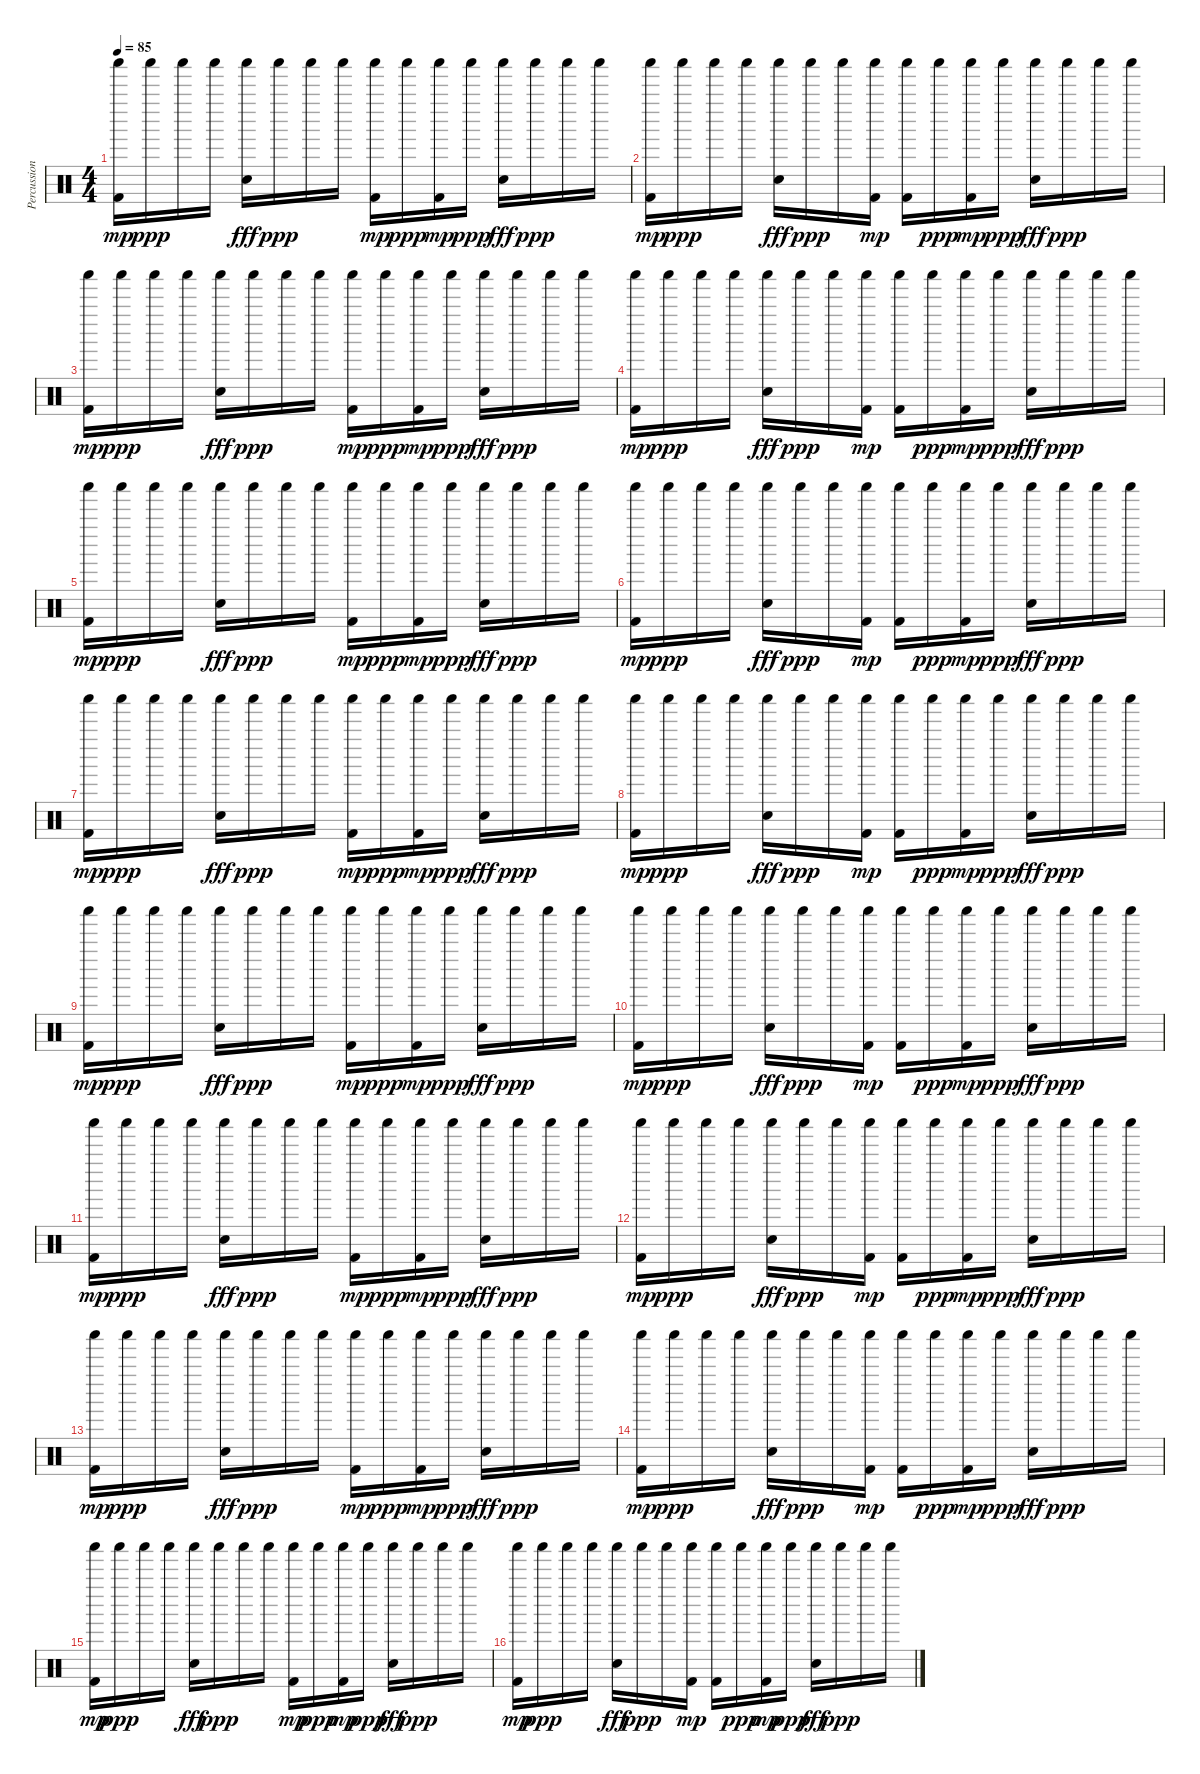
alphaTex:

\track ("Percussion" "Percussion") {instrument percussion}
\staff {score}
\articulation defaults
\ts (4 4)
\tempo 85
\clef neutral
\ks c
("Shaker (hit)" "Kick (hit) 2").16{dy mp volume 12} "Shaker (hit)".16{dy ppp} "Shaker (hit)".16 "Shaker (hit)".16 ("Shaker (hit)" "Electric Snare (hit)").16{dy fff} "Shaker (hit)".16{dy ppp} "Shaker (hit)".16 "Shaker (hit)".16 ("Shaker (hit)" "Kick (hit) 2").16{dy mp} "Shaker (hit)".16{dy ppp} ("Shaker (hit)" "Kick (hit) 2").16{dy mp} "Shaker (hit)".16{dy ppp} ("Shaker (hit)" "Electric Snare (hit)").16{dy fff} "Shaker (hit)".16{dy ppp} "Shaker (hit)".16 "Shaker (hit)".16 |
("Shaker (hit)" "Kick (hit) 2").16{dy mp} "Shaker (hit)".16{dy ppp} "Shaker (hit)".16 "Shaker (hit)".16 ("Shaker (hit)" "Electric Snare (hit)").16{dy fff} "Shaker (hit)".16{dy ppp} "Shaker (hit)".16 ("Shaker (hit)" "Kick (hit) 2").16{dy mp} ("Shaker (hit)" "Kick (hit) 2").16 "Shaker (hit)".16{dy ppp} ("Shaker (hit)" "Kick (hit) 2").16{dy mp} "Shaker (hit)".16{dy ppp} ("Shaker (hit)" "Electric Snare (hit)").16{dy fff} "Shaker (hit)".16{dy ppp} "Shaker (hit)".16 "Shaker (hit)".16 |
("Shaker (hit)" "Kick (hit) 2").16{dy mp} "Shaker (hit)".16{dy ppp} "Shaker (hit)".16 "Shaker (hit)".16 ("Shaker (hit)" "Electric Snare (hit)").16{dy fff} "Shaker (hit)".16{dy ppp} "Shaker (hit)".16 "Shaker (hit)".16 ("Shaker (hit)" "Kick (hit) 2").16{dy mp} "Shaker (hit)".16{dy ppp} ("Shaker (hit)" "Kick (hit) 2").16{dy mp} "Shaker (hit)".16{dy ppp} ("Shaker (hit)" "Electric Snare (hit)").16{dy fff} "Shaker (hit)".16{dy ppp} "Shaker (hit)".16 "Shaker (hit)".16 |
("Shaker (hit)" "Kick (hit) 2").16{dy mp} "Shaker (hit)".16{dy ppp} "Shaker (hit)".16 "Shaker (hit)".16 ("Shaker (hit)" "Electric Snare (hit)").16{dy fff} "Shaker (hit)".16{dy ppp} "Shaker (hit)".16 ("Shaker (hit)" "Kick (hit) 2").16{dy mp} ("Shaker (hit)" "Kick (hit) 2").16 "Shaker (hit)".16{dy ppp} ("Shaker (hit)" "Kick (hit) 2").16{dy mp} "Shaker (hit)".16{dy ppp} ("Shaker (hit)" "Electric Snare (hit)").16{dy fff} "Shaker (hit)".16{dy ppp} "Shaker (hit)".16 "Shaker (hit)".16 |
("Shaker (hit)" "Kick (hit) 2").16{dy mp} "Shaker (hit)".16{dy ppp} "Shaker (hit)".16 "Shaker (hit)".16 ("Shaker (hit)" "Electric Snare (hit)").16{dy fff} "Shaker (hit)".16{dy ppp} "Shaker (hit)".16 "Shaker (hit)".16 ("Shaker (hit)" "Kick (hit) 2").16{dy mp} "Shaker (hit)".16{dy ppp} ("Shaker (hit)" "Kick (hit) 2").16{dy mp} "Shaker (hit)".16{dy ppp} ("Shaker (hit)" "Electric Snare (hit)").16{dy fff} "Shaker (hit)".16{dy ppp} "Shaker (hit)".16 "Shaker (hit)".16 |
("Shaker (hit)" "Kick (hit) 2").16{dy mp} "Shaker (hit)".16{dy ppp} "Shaker (hit)".16 "Shaker (hit)".16 ("Shaker (hit)" "Electric Snare (hit)").16{dy fff} "Shaker (hit)".16{dy ppp} "Shaker (hit)".16 ("Shaker (hit)" "Kick (hit) 2").16{dy mp} ("Shaker (hit)" "Kick (hit) 2").16 "Shaker (hit)".16{dy ppp} ("Shaker (hit)" "Kick (hit) 2").16{dy mp} "Shaker (hit)".16{dy ppp} ("Shaker (hit)" "Electric Snare (hit)").16{dy fff} "Shaker (hit)".16{dy ppp} "Shaker (hit)".16 "Shaker (hit)".16 |
("Shaker (hit)" "Kick (hit) 2").16{dy mp} "Shaker (hit)".16{dy ppp} "Shaker (hit)".16 "Shaker (hit)".16 ("Shaker (hit)" "Electric Snare (hit)").16{dy fff} "Shaker (hit)".16{dy ppp} "Shaker (hit)".16 "Shaker (hit)".16 ("Shaker (hit)" "Kick (hit) 2").16{dy mp} "Shaker (hit)".16{dy ppp} ("Shaker (hit)" "Kick (hit) 2").16{dy mp} "Shaker (hit)".16{dy ppp} ("Shaker (hit)" "Electric Snare (hit)").16{dy fff} "Shaker (hit)".16{dy ppp} "Shaker (hit)".16 "Shaker (hit)".16 |
("Shaker (hit)" "Kick (hit) 2").16{dy mp} "Shaker (hit)".16{dy ppp} "Shaker (hit)".16 "Shaker (hit)".16 ("Shaker (hit)" "Electric Snare (hit)").16{dy fff} "Shaker (hit)".16{dy ppp} "Shaker (hit)".16 ("Shaker (hit)" "Kick (hit) 2").16{dy mp} ("Shaker (hit)" "Kick (hit) 2").16 "Shaker (hit)".16{dy ppp} ("Shaker (hit)" "Kick (hit) 2").16{dy mp} "Shaker (hit)".16{dy ppp} ("Shaker (hit)" "Electric Snare (hit)").16{dy fff} "Shaker (hit)".16{dy ppp} "Shaker (hit)".16 "Shaker (hit)".16 |
("Shaker (hit)" "Kick (hit) 2").16{dy mp} "Shaker (hit)".16{dy ppp} "Shaker (hit)".16 "Shaker (hit)".16 ("Shaker (hit)" "Electric Snare (hit)").16{dy fff} "Shaker (hit)".16{dy ppp} "Shaker (hit)".16 "Shaker (hit)".16 ("Shaker (hit)" "Kick (hit) 2").16{dy mp} "Shaker (hit)".16{dy ppp} ("Shaker (hit)" "Kick (hit) 2").16{dy mp} "Shaker (hit)".16{dy ppp} ("Shaker (hit)" "Electric Snare (hit)").16{dy fff} "Shaker (hit)".16{dy ppp} "Shaker (hit)".16 "Shaker (hit)".16 |
("Shaker (hit)" "Kick (hit) 2").16{dy mp} "Shaker (hit)".16{dy ppp} "Shaker (hit)".16 "Shaker (hit)".16 ("Shaker (hit)" "Electric Snare (hit)").16{dy fff} "Shaker (hit)".16{dy ppp} "Shaker (hit)".16 ("Shaker (hit)" "Kick (hit) 2").16{dy mp} ("Shaker (hit)" "Kick (hit) 2").16 "Shaker (hit)".16{dy ppp} ("Shaker (hit)" "Kick (hit) 2").16{dy mp} "Shaker (hit)".16{dy ppp} ("Shaker (hit)" "Electric Snare (hit)").16{dy fff} "Shaker (hit)".16{dy ppp} "Shaker (hit)".16 "Shaker (hit)".16 |
("Shaker (hit)" "Kick (hit) 2").16{dy mp} "Shaker (hit)".16{dy ppp} "Shaker (hit)".16 "Shaker (hit)".16 ("Shaker (hit)" "Electric Snare (hit)").16{dy fff} "Shaker (hit)".16{dy ppp} "Shaker (hit)".16 "Shaker (hit)".16 ("Shaker (hit)" "Kick (hit) 2").16{dy mp} "Shaker (hit)".16{dy ppp} ("Shaker (hit)" "Kick (hit) 2").16{dy mp} "Shaker (hit)".16{dy ppp} ("Shaker (hit)" "Electric Snare (hit)").16{dy fff} "Shaker (hit)".16{dy ppp} "Shaker (hit)".16 "Shaker (hit)".16 |
("Shaker (hit)" "Kick (hit) 2").16{dy mp} "Shaker (hit)".16{dy ppp} "Shaker (hit)".16 "Shaker (hit)".16 ("Shaker (hit)" "Electric Snare (hit)").16{dy fff} "Shaker (hit)".16{dy ppp} "Shaker (hit)".16 ("Shaker (hit)" "Kick (hit) 2").16{dy mp} ("Shaker (hit)" "Kick (hit) 2").16 "Shaker (hit)".16{dy ppp} ("Shaker (hit)" "Kick (hit) 2").16{dy mp} "Shaker (hit)".16{dy ppp} ("Shaker (hit)" "Electric Snare (hit)").16{dy fff} "Shaker (hit)".16{dy ppp} "Shaker (hit)".16 "Shaker (hit)".16 |
("Shaker (hit)" "Kick (hit) 2").16{dy mp} "Shaker (hit)".16{dy ppp} "Shaker (hit)".16 "Shaker (hit)".16 ("Shaker (hit)" "Electric Snare (hit)").16{dy fff} "Shaker (hit)".16{dy ppp} "Shaker (hit)".16 "Shaker (hit)".16 ("Shaker (hit)" "Kick (hit) 2").16{dy mp} "Shaker (hit)".16{dy ppp} ("Shaker (hit)" "Kick (hit) 2").16{dy mp} "Shaker (hit)".16{dy ppp} ("Shaker (hit)" "Electric Snare (hit)").16{dy fff} "Shaker (hit)".16{dy ppp} "Shaker (hit)".16 "Shaker (hit)".16 |
("Shaker (hit)" "Kick (hit) 2").16{dy mp} "Shaker (hit)".16{dy ppp} "Shaker (hit)".16 "Shaker (hit)".16 ("Shaker (hit)" "Electric Snare (hit)").16{dy fff} "Shaker (hit)".16{dy ppp} "Shaker (hit)".16 ("Shaker (hit)" "Kick (hit) 2").16{dy mp} ("Shaker (hit)" "Kick (hit) 2").16 "Shaker (hit)".16{dy ppp} ("Shaker (hit)" "Kick (hit) 2").16{dy mp} "Shaker (hit)".16{dy ppp} ("Shaker (hit)" "Electric Snare (hit)").16{dy fff} "Shaker (hit)".16{dy ppp} "Shaker (hit)".16 "Shaker (hit)".16 |
("Shaker (hit)" "Kick (hit) 2").16{dy mp} "Shaker (hit)".16{dy ppp} "Shaker (hit)".16 "Shaker (hit)".16 ("Shaker (hit)" "Electric Snare (hit)").16{dy fff} "Shaker (hit)".16{dy ppp} "Shaker (hit)".16 "Shaker (hit)".16 ("Shaker (hit)" "Kick (hit) 2").16{dy mp} "Shaker (hit)".16{dy ppp} ("Shaker (hit)" "Kick (hit) 2").16{dy mp} "Shaker (hit)".16{dy ppp} ("Shaker (hit)" "Electric Snare (hit)").16{dy fff} "Shaker (hit)".16{dy ppp} "Shaker (hit)".16 "Shaker (hit)".16 |
("Shaker (hit)" "Kick (hit) 2").16{dy mp} "Shaker (hit)".16{dy ppp} "Shaker (hit)".16 "Shaker (hit)".16 ("Shaker (hit)" "Electric Snare (hit)").16{dy fff} "Shaker (hit)".16{dy ppp} "Shaker (hit)".16 ("Shaker (hit)" "Kick (hit) 2").16{dy mp} ("Shaker (hit)" "Kick (hit) 2").16 "Shaker (hit)".16{dy ppp} ("Shaker (hit)" "Kick (hit) 2").16{dy mp} "Shaker (hit)".16{dy ppp} ("Shaker (hit)" "Electric Snare (hit)").16{dy fff} "Shaker (hit)".16{dy ppp} "Shaker (hit)".16 "Shaker (hit)".16
